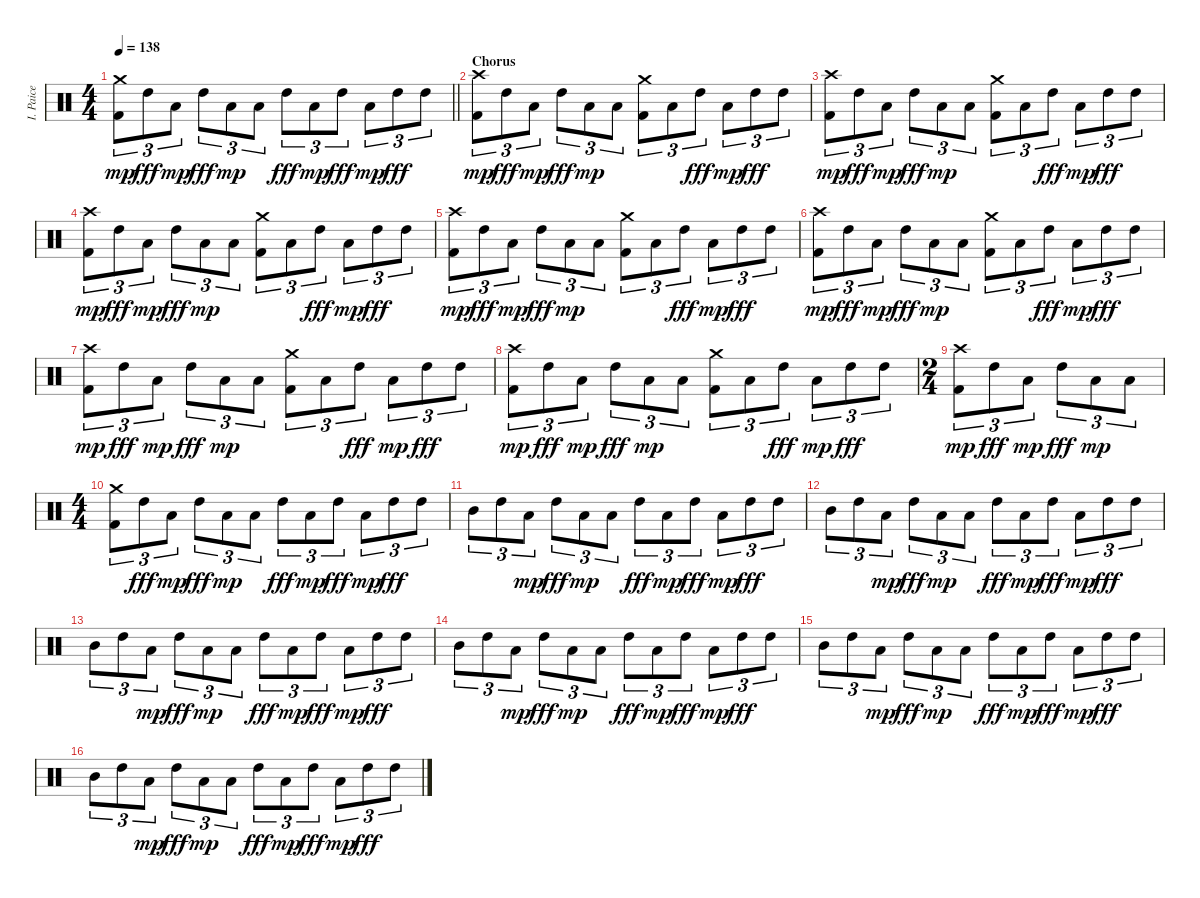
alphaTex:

\track ("I. Paice" "I. Paice") {instrument percussion}
\staff {score}
\articulation defaults
\ts (4 4)
\tempo 138
\clef neutral
\barLineRight lightlight
\ks c
("Crash medium (hit)" "Kick (hit) 2").8{tu (3 2) dy mp} "High Tom (hit)".8{tu (3 2) dy fff} "Low Tom (hit)".8{tu (3 2) dy mp} "High Tom (hit)".8{tu (3 2) dy fff} "Low Tom (hit)".8{tu (3 2) dy mp} "Low Tom (hit)".8{tu (3 2)} "High Tom (hit)".8{tu (3 2) dy fff} "Low Tom (hit)".8{tu (3 2) dy mp} "High Tom (hit)".8{tu (3 2) dy fff} "Low Tom (hit)".8{tu (3 2) dy mp} "High Tom (hit)".8{tu (3 2) dy fff} "High Tom (hit)".8{tu (3 2)} |
\section ("" "Chorus")
("Crash high (hit)" "Kick (hit) 2").8{tu (3 2) dy mp} "High Tom (hit)".8{tu (3 2) dy fff} "Low Tom (hit)".8{tu (3 2) dy mp} "High Tom (hit)".8{tu (3 2) dy fff} "Low Tom (hit)".8{tu (3 2) dy mp} "Low Tom (hit)".8{tu (3 2)} ("Crash medium (hit)" "Kick (hit) 2").8{tu (3 2)} "Low Tom (hit)".8{tu (3 2)} "High Tom (hit)".8{tu (3 2) dy fff} "Low Tom (hit)".8{tu (3 2) dy mp} "High Tom (hit)".8{tu (3 2) dy fff} "High Tom (hit)".8{tu (3 2)} |
("Crash high (hit)" "Kick (hit) 2").8{tu (3 2) dy mp} "High Tom (hit)".8{tu (3 2) dy fff} "Low Tom (hit)".8{tu (3 2) dy mp} "High Tom (hit)".8{tu (3 2) dy fff} "Low Tom (hit)".8{tu (3 2) dy mp} "Low Tom (hit)".8{tu (3 2)} ("Crash medium (hit)" "Kick (hit) 2").8{tu (3 2)} "Low Tom (hit)".8{tu (3 2)} "High Tom (hit)".8{tu (3 2) dy fff} "Low Tom (hit)".8{tu (3 2) dy mp} "High Tom (hit)".8{tu (3 2) dy fff} "High Tom (hit)".8{tu (3 2)} |
("Crash high (hit)" "Kick (hit) 2").8{tu (3 2) dy mp} "High Tom (hit)".8{tu (3 2) dy fff} "Low Tom (hit)".8{tu (3 2) dy mp} "High Tom (hit)".8{tu (3 2) dy fff} "Low Tom (hit)".8{tu (3 2) dy mp} "Low Tom (hit)".8{tu (3 2)} ("Crash medium (hit)" "Kick (hit) 2").8{tu (3 2)} "Low Tom (hit)".8{tu (3 2)} "High Tom (hit)".8{tu (3 2) dy fff} "Low Tom (hit)".8{tu (3 2) dy mp} "High Tom (hit)".8{tu (3 2) dy fff} "High Tom (hit)".8{tu (3 2)} |
("Crash high (hit)" "Kick (hit) 2").8{tu (3 2) dy mp} "High Tom (hit)".8{tu (3 2) dy fff} "Low Tom (hit)".8{tu (3 2) dy mp} "High Tom (hit)".8{tu (3 2) dy fff} "Low Tom (hit)".8{tu (3 2) dy mp} "Low Tom (hit)".8{tu (3 2)} ("Crash medium (hit)" "Kick (hit) 2").8{tu (3 2)} "Low Tom (hit)".8{tu (3 2)} "High Tom (hit)".8{tu (3 2) dy fff} "Low Tom (hit)".8{tu (3 2) dy mp} "High Tom (hit)".8{tu (3 2) dy fff} "High Tom (hit)".8{tu (3 2)} |
("Crash high (hit)" "Kick (hit) 2").8{tu (3 2) dy mp} "High Tom (hit)".8{tu (3 2) dy fff} "Low Tom (hit)".8{tu (3 2) dy mp} "High Tom (hit)".8{tu (3 2) dy fff} "Low Tom (hit)".8{tu (3 2) dy mp} "Low Tom (hit)".8{tu (3 2)} ("Crash medium (hit)" "Kick (hit) 2").8{tu (3 2)} "Low Tom (hit)".8{tu (3 2)} "High Tom (hit)".8{tu (3 2) dy fff} "Low Tom (hit)".8{tu (3 2) dy mp} "High Tom (hit)".8{tu (3 2) dy fff} "High Tom (hit)".8{tu (3 2)} |
("Crash high (hit)" "Kick (hit) 2").8{tu (3 2) dy mp} "High Tom (hit)".8{tu (3 2) dy fff} "Low Tom (hit)".8{tu (3 2) dy mp} "High Tom (hit)".8{tu (3 2) dy fff} "Low Tom (hit)".8{tu (3 2) dy mp} "Low Tom (hit)".8{tu (3 2)} ("Crash medium (hit)" "Kick (hit) 2").8{tu (3 2)} "Low Tom (hit)".8{tu (3 2)} "High Tom (hit)".8{tu (3 2) dy fff} "Low Tom (hit)".8{tu (3 2) dy mp} "High Tom (hit)".8{tu (3 2) dy fff} "High Tom (hit)".8{tu (3 2)} |
("Crash high (hit)" "Kick (hit) 2").8{tu (3 2) dy mp} "High Tom (hit)".8{tu (3 2) dy fff} "Low Tom (hit)".8{tu (3 2) dy mp} "High Tom (hit)".8{tu (3 2) dy fff} "Low Tom (hit)".8{tu (3 2) dy mp} "Low Tom (hit)".8{tu (3 2)} ("Crash medium (hit)" "Kick (hit) 2").8{tu (3 2)} "Low Tom (hit)".8{tu (3 2)} "High Tom (hit)".8{tu (3 2) dy fff} "Low Tom (hit)".8{tu (3 2) dy mp} "High Tom (hit)".8{tu (3 2) dy fff} "High Tom (hit)".8{tu (3 2)} |
\ts (2 4)
("Crash high (hit)" "Kick (hit) 2").8{tu (3 2) dy mp} "High Tom (hit)".8{tu (3 2) dy fff} "Low Tom (hit)".8{tu (3 2) dy mp} "High Tom (hit)".8{tu (3 2) dy fff} "Low Tom (hit)".8{tu (3 2) dy mp} "Low Tom (hit)".8{tu (3 2)} |
\ts (4 4)
("Crash medium (hit)" "Kick (hit) 2").8{tu (3 2)} "High Tom (hit)".8{tu (3 2) dy fff} "Low Tom (hit)".8{tu (3 2) dy mp} "High Tom (hit)".8{tu (3 2) dy fff} "Low Tom (hit)".8{tu (3 2) dy mp} "Low Tom (hit)".8{tu (3 2)} "High Tom (hit)".8{tu (3 2) dy fff} "Low Tom (hit)".8{tu (3 2) dy mp} "High Tom (hit)".8{tu (3 2) dy fff} "Low Tom (hit)".8{tu (3 2) dy mp} "High Tom (hit)".8{tu (3 2) dy fff} "High Tom (hit)".8{tu (3 2)} |
"Mid Tom (hit)".8{tu (3 2)} "High Tom (hit)".8{tu (3 2)} "Low Tom (hit)".8{tu (3 2) dy mp} "High Tom (hit)".8{tu (3 2) dy fff} "Low Tom (hit)".8{tu (3 2) dy mp} "Low Tom (hit)".8{tu (3 2)} "High Tom (hit)".8{tu (3 2) dy fff} "Low Tom (hit)".8{tu (3 2) dy mp} "High Tom (hit)".8{tu (3 2) dy fff} "Low Tom (hit)".8{tu (3 2) dy mp} "High Tom (hit)".8{tu (3 2) dy fff} "High Tom (hit)".8{tu (3 2)} |
"Mid Tom (hit)".8{tu (3 2)} "High Tom (hit)".8{tu (3 2)} "Low Tom (hit)".8{tu (3 2) dy mp} "High Tom (hit)".8{tu (3 2) dy fff} "Low Tom (hit)".8{tu (3 2) dy mp} "Low Tom (hit)".8{tu (3 2)} "High Tom (hit)".8{tu (3 2) dy fff} "Low Tom (hit)".8{tu (3 2) dy mp} "High Tom (hit)".8{tu (3 2) dy fff} "Low Tom (hit)".8{tu (3 2) dy mp} "High Tom (hit)".8{tu (3 2) dy fff} "High Tom (hit)".8{tu (3 2)} |
"Mid Tom (hit)".8{tu (3 2)} "High Tom (hit)".8{tu (3 2)} "Low Tom (hit)".8{tu (3 2) dy mp} "High Tom (hit)".8{tu (3 2) dy fff} "Low Tom (hit)".8{tu (3 2) dy mp} "Low Tom (hit)".8{tu (3 2)} "High Tom (hit)".8{tu (3 2) dy fff} "Low Tom (hit)".8{tu (3 2) dy mp} "High Tom (hit)".8{tu (3 2) dy fff} "Low Tom (hit)".8{tu (3 2) dy mp} "High Tom (hit)".8{tu (3 2) dy fff} "High Tom (hit)".8{tu (3 2)} |
"Mid Tom (hit)".8{tu (3 2)} "High Tom (hit)".8{tu (3 2)} "Low Tom (hit)".8{tu (3 2) dy mp} "High Tom (hit)".8{tu (3 2) dy fff} "Low Tom (hit)".8{tu (3 2) dy mp} "Low Tom (hit)".8{tu (3 2)} "High Tom (hit)".8{tu (3 2) dy fff} "Low Tom (hit)".8{tu (3 2) dy mp} "High Tom (hit)".8{tu (3 2) dy fff} "Low Tom (hit)".8{tu (3 2) dy mp} "High Tom (hit)".8{tu (3 2) dy fff} "High Tom (hit)".8{tu (3 2)} |
"Mid Tom (hit)".8{tu (3 2)} "High Tom (hit)".8{tu (3 2)} "Low Tom (hit)".8{tu (3 2) dy mp} "High Tom (hit)".8{tu (3 2) dy fff} "Low Tom (hit)".8{tu (3 2) dy mp} "Low Tom (hit)".8{tu (3 2)} "High Tom (hit)".8{tu (3 2) dy fff} "Low Tom (hit)".8{tu (3 2) dy mp} "High Tom (hit)".8{tu (3 2) dy fff} "Low Tom (hit)".8{tu (3 2) dy mp} "High Tom (hit)".8{tu (3 2) dy fff} "High Tom (hit)".8{tu (3 2)} |
"Mid Tom (hit)".8{tu (3 2)} "High Tom (hit)".8{tu (3 2)} "Low Tom (hit)".8{tu (3 2) dy mp} "High Tom (hit)".8{tu (3 2) dy fff} "Low Tom (hit)".8{tu (3 2) dy mp} "Low Tom (hit)".8{tu (3 2)} "High Tom (hit)".8{tu (3 2) dy fff} "Low Tom (hit)".8{tu (3 2) dy mp} "High Tom (hit)".8{tu (3 2) dy fff} "Low Tom (hit)".8{tu (3 2) dy mp} "High Tom (hit)".8{tu (3 2) dy fff} "High Tom (hit)".8{tu (3 2)}
